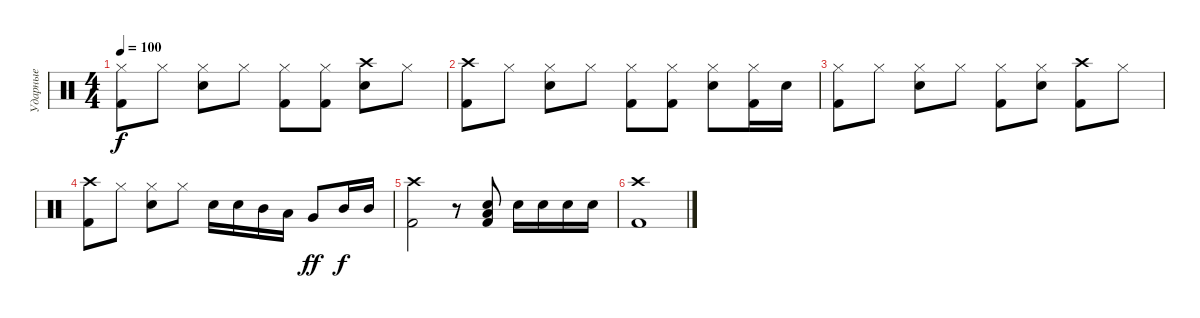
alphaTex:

\track ("Ударные" "Ударные") {instrument percussion}
\staff {score}
\articulation defaults
\ts (4 4)
\tempo 100
\clef neutral
\ks c
("Hi-Hat (closed)" "Kick (hit) 2").8{dy f} "Hi-Hat (closed)".8 ("Hi-Hat (closed)" "Electric Snare (hit)").8 "Hi-Hat (closed)".8 ("Hi-Hat (closed)" "Kick (hit) 2").8 ("Hi-Hat (closed)" "Kick (hit) 2").8 ("Crash high (hit)" "Electric Snare (hit)").8 "Hi-Hat (closed)".8 |
("Crash high (hit)" "Kick (hit) 2").8 "Hi-Hat (closed)".8 ("Hi-Hat (closed)" "Electric Snare (hit)").8 "Hi-Hat (closed)".8 ("Hi-Hat (closed)" "Kick (hit) 2").8 ("Hi-Hat (closed)" "Kick (hit) 2").8 ("Hi-Hat (closed)" "Electric Snare (hit)").8 ("Hi-Hat (closed)" "Kick (hit) 2").16 "Electric Snare (hit)".16 |
("Hi-Hat (closed)" "Kick (hit) 2").8 "Hi-Hat (closed)".8 ("Hi-Hat (closed)" "Electric Snare (hit)").8 "Hi-Hat (closed)".8 ("Hi-Hat (closed)" "Kick (hit) 2").8 ("Hi-Hat (closed)" "Electric Snare (hit)").8 ("Crash high (hit)" "Kick (hit) 2").8 "Hi-Hat (closed)".8 |
("Crash high (hit)" "Kick (hit) 2").8 "Hi-Hat (closed)".8 ("Hi-Hat (closed)" "Electric Snare (hit)").8 "Hi-Hat (closed)".8 "Electric Snare (hit)".16 "Electric Snare (hit)".16 "Mid Tom (hit)".16 "Low Tom (hit)".16 "Very Low Tom (hit)".8{dy ff} "Mid Tom (hit)".16{dy f} "Mid Tom (hit)".16 |
("Crash high (hit)" "Kick (hit) 2").2 r.8 ("Electric Snare (hit)" "Low Tom (hit)" "Kick (hit) 2").8 "Electric Snare (hit)".16 "Electric Snare (hit)".16 "Electric Snare (hit)".16 "Electric Snare (hit)".16 |
("Crash high (hit)" "Kick (hit) 2").1
